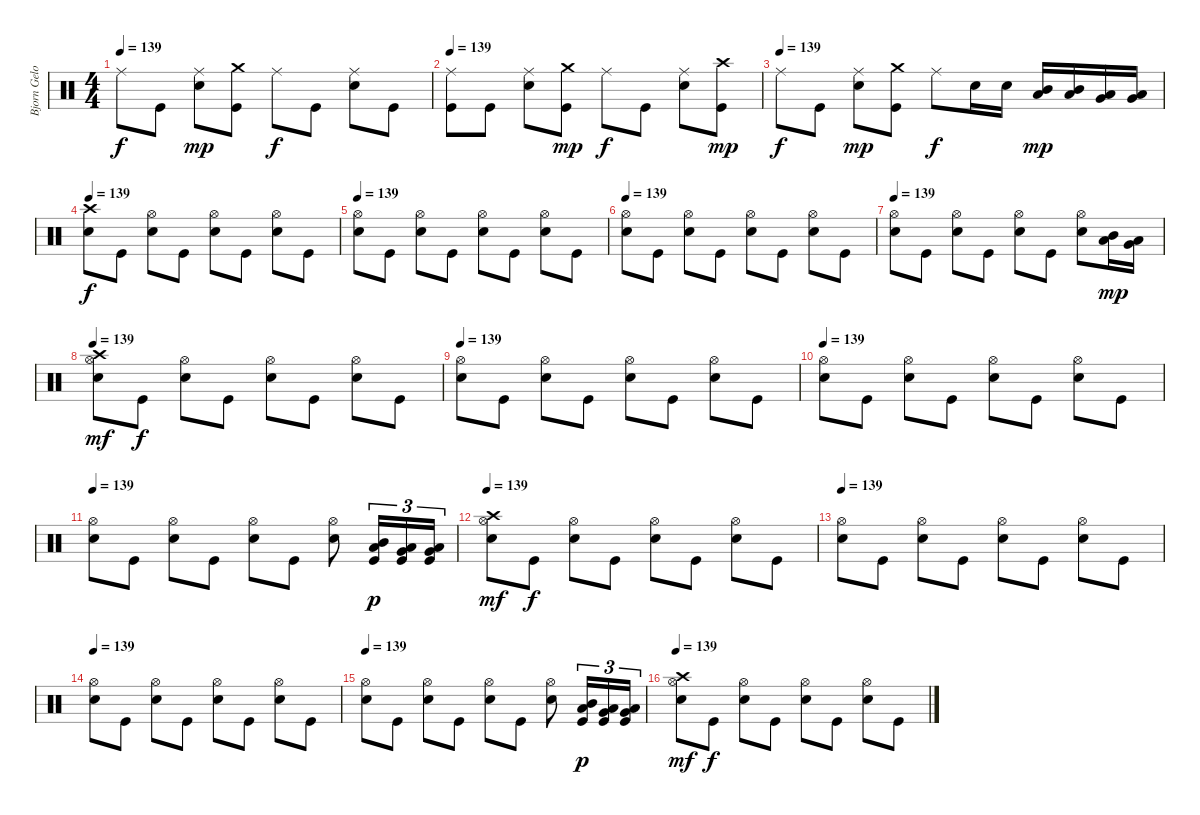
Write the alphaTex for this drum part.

\track ("Bjorn Gelotte-Drum" "Bjorn Gelo") {instrument percussion}
\staff {score}
\articulation defaults
\ts (4 4)
\tempo 139
\clef neutral
\ks c "Ride (middle)".8{dy f} "Kick (hit)".8
("Electric Snare (hit)" "Ride (middle)").8{dy mp} ("Kick (hit)" "Crash medium (hit)").8 "Ride (middle)".8{dy f} "Kick (hit)".8 ("Electric Snare (hit)" "Ride (middle)").8 "Kick (hit)".8 |
\tempo 139
("Kick (hit)" "Ride (middle)").8 "Kick (hit)".8 ("Electric Snare (hit)" "Ride (middle)").8 ("Kick (hit)" "Crash medium (hit)").8{dy mp} "Ride (middle)".8{dy f} "Kick (hit)".8 ("Electric Snare (hit)" "Ride (middle)").8 ("Kick (hit)" "Crash high (hit)").8{dy mp} |
\tempo (139)
"Ride (middle)".8{dy f} "Kick (hit)".8 ("Electric Snare (hit)" "Ride (middle)").8{dy mp} ("Kick (hit)" "Crash medium (hit)").8 "Ride (middle)".8{dy f} "Electric Snare (hit)".16 "Electric Snare (hit)".16 ("Low Tom (hit)" "Mid Tom (hit)").16{dy mp} ("Low Tom (hit)" "Mid Tom (hit)").16 ("Very Low Tom (hit)" "Low Tom (hit)").16 ("Very Low Tom (hit)" "Low Tom (hit)").16 |
\tempo 139
("Electric Snare (hit)" "Crash high (hit)").8{dy f} "Kick (hit)".8 ("Electric Snare (hit)" "Hi-Hat (open)").8 "Kick (hit)".8 ("Electric Snare (hit)" "Hi-Hat (open)").8 "Kick (hit)".8 ("Electric Snare (hit)" "Hi-Hat (open)").8 "Kick (hit)".8 |
\tempo 139
("Electric Snare (hit)" "Hi-Hat (open)").8 "Kick (hit)".8 ("Electric Snare (hit)" "Hi-Hat (open)").8 "Kick (hit)".8 ("Electric Snare (hit)" "Hi-Hat (open)").8 "Kick (hit)".8 ("Electric Snare (hit)" "Hi-Hat (open)").8 "Kick (hit)".8 |
\tempo 139
("Electric Snare (hit)" "Hi-Hat (open)").8 "Kick (hit)".8 ("Electric Snare (hit)" "Hi-Hat (open)").8 "Kick (hit)".8 ("Electric Snare (hit)" "Hi-Hat (open)").8 "Kick (hit)".8 ("Electric Snare (hit)" "Hi-Hat (open)").8 "Kick (hit)".8 |
\tempo 139
("Electric Snare (hit)" "Hi-Hat (open)").8 "Kick (hit)".8 ("Electric Snare (hit)" "Hi-Hat (open)").8 "Kick (hit)".8 ("Electric Snare (hit)" "Hi-Hat (open)").8 "Kick (hit)".8 ("Electric Snare (hit)" "Hi-Hat (open)").8 ("Low Tom (hit)" "Mid Tom (hit)").16{dy mp} ("Very Low Tom (hit)" "Low Tom (hit)").16 |
\tempo 139
("Electric Snare (hit)" "Hi-Hat (open)" "Crash high (hit)").8{dy mf} "Kick (hit)".8{dy f} ("Electric Snare (hit)" "Hi-Hat (open)").8 "Kick (hit)".8 ("Electric Snare (hit)" "Hi-Hat (open)").8 "Kick (hit)".8 ("Electric Snare (hit)" "Hi-Hat (open)").8 "Kick (hit)".8 |
\tempo 139
("Electric Snare (hit)" "Hi-Hat (open)").8 "Kick (hit)".8 ("Electric Snare (hit)" "Hi-Hat (open)").8 "Kick (hit)".8 ("Electric Snare (hit)" "Hi-Hat (open)").8 "Kick (hit)".8 ("Electric Snare (hit)" "Hi-Hat (open)").8 "Kick (hit)".8 |
\tempo 139
("Electric Snare (hit)" "Hi-Hat (open)").8 "Kick (hit)".8 ("Electric Snare (hit)" "Hi-Hat (open)").8 "Kick (hit)".8 ("Electric Snare (hit)" "Hi-Hat (open)").8 "Kick (hit)".8 ("Electric Snare (hit)" "Hi-Hat (open)").8 "Kick (hit)".8 |
\tempo 139
("Electric Snare (hit)" "Hi-Hat (open)").8 "Kick (hit)".8 ("Electric Snare (hit)" "Hi-Hat (open)").8 "Kick (hit)".8 ("Electric Snare (hit)" "Hi-Hat (open)").8 "Kick (hit)".8 ("Electric Snare (hit)" "Hi-Hat (open)").8 ("Kick (hit)" "Low Tom (hit)" "Mid Tom (hit)").16{tu (3 2) dy p} ("Kick (hit)" "Very Low Tom (hit)" "Low Tom (hit)").16{tu (3 2)} ("Kick (hit)" "Low Floor Tom (hit)" "Very Low Tom (hit)").16{tu (3 2)} |
\tempo 139
("Electric Snare (hit)" "Hi-Hat (open)" "Crash high (hit)").8{dy mf} "Kick (hit)".8{dy f} ("Electric Snare (hit)" "Hi-Hat (open)").8 "Kick (hit)".8 ("Electric Snare (hit)" "Hi-Hat (open)").8 "Kick (hit)".8 ("Electric Snare (hit)" "Hi-Hat (open)").8 "Kick (hit)".8 |
\tempo 139
("Electric Snare (hit)" "Hi-Hat (open)").8 "Kick (hit)".8 ("Electric Snare (hit)" "Hi-Hat (open)").8 "Kick (hit)".8 ("Electric Snare (hit)" "Hi-Hat (open)").8 "Kick (hit)".8 ("Electric Snare (hit)" "Hi-Hat (open)").8 "Kick (hit)".8 |
\tempo 139
("Electric Snare (hit)" "Hi-Hat (open)").8 "Kick (hit)".8 ("Electric Snare (hit)" "Hi-Hat (open)").8 "Kick (hit)".8 ("Electric Snare (hit)" "Hi-Hat (open)").8 "Kick (hit)".8 ("Electric Snare (hit)" "Hi-Hat (open)").8 "Kick (hit)".8 |
\tempo 139
("Electric Snare (hit)" "Hi-Hat (open)").8 "Kick (hit)".8 ("Electric Snare (hit)" "Hi-Hat (open)").8 "Kick (hit)".8 ("Electric Snare (hit)" "Hi-Hat (open)").8 "Kick (hit)".8 ("Electric Snare (hit)" "Hi-Hat (open)").8 ("Kick (hit)" "Low Tom (hit)" "Mid Tom (hit)").16{tu (3 2) dy p} ("Kick (hit)" "Very Low Tom (hit)" "Low Tom (hit)").16{tu (3 2)} ("Kick (hit)" "Low Floor Tom (hit)" "Very Low Tom (hit)").16{tu (3 2)} |
\tempo 139
("Electric Snare (hit)" "Hi-Hat (open)" "Crash high (hit)").8{dy mf} "Kick (hit)".8{dy f} ("Electric Snare (hit)" "Hi-Hat (open)").8 "Kick (hit)".8 ("Electric Snare (hit)" "Hi-Hat (open)").8 "Kick (hit)".8 ("Electric Snare (hit)" "Hi-Hat (open)").8 "Kick (hit)".8
